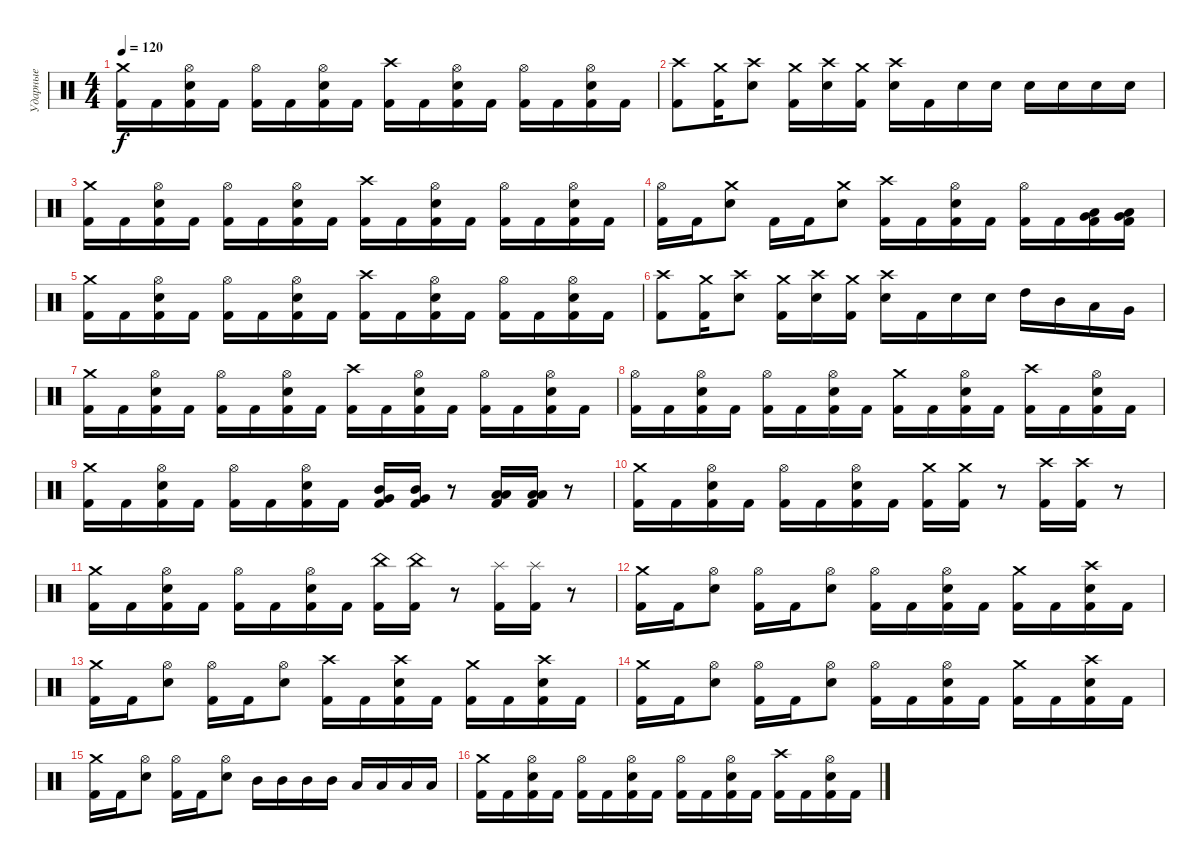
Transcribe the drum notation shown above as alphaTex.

\track ("Ударные" "Ударные") {instrument percussion}
\staff {score}
\articulation defaults
\ts (4 4)
\tempo 120
\clef neutral
\ks c
("Crash medium (hit)" "Kick (hit) 2").16{dy f} "Kick (hit) 2".16 ("Hi-Hat (open)" "Electric Snare (hit)" "Kick (hit) 2").16 "Kick (hit) 2".16 ("Hi-Hat (open)" "Kick (hit) 2").16 "Kick (hit) 2".16 ("Hi-Hat (open)" "Electric Snare (hit)" "Kick (hit) 2").16 "Kick (hit) 2".16 ("Crash high (hit)" "Kick (hit) 2").16 "Kick (hit) 2".16 ("Hi-Hat (open)" "Electric Snare (hit)" "Kick (hit) 2").16 "Kick (hit) 2".16 ("Hi-Hat (open)" "Kick (hit) 2").16 "Kick (hit) 2".16 ("Hi-Hat (open)" "Electric Snare (hit)" "Kick (hit) 2").16 "Kick (hit) 2".16 |
("Crash high (hit)" "Kick (hit) 2").8 ("Crash medium (hit)" "Kick (hit) 2").16 ("Crash high (hit)" "Electric Snare (hit)").8 ("Crash medium (hit)" "Kick (hit) 2").16 ("Crash high (hit)" "Electric Snare (hit)").16 ("Crash medium (hit)" "Kick (hit) 2").16 ("Crash high (hit)" "Electric Snare (hit)").16 "Kick (hit) 2".16 "Electric Snare (hit)".16 "Electric Snare (hit)".16 "Electric Snare (hit)".16 "Electric Snare (hit)".16 "Electric Snare (hit)".16 "Electric Snare (hit)".16 |
("Crash medium (hit)" "Kick (hit) 2").16 "Kick (hit) 2".16 ("Hi-Hat (open)" "Electric Snare (hit)" "Kick (hit) 2").16 "Kick (hit) 2".16 ("Hi-Hat (open)" "Kick (hit) 2").16 "Kick (hit) 2".16 ("Hi-Hat (open)" "Electric Snare (hit)" "Kick (hit) 2").16 "Kick (hit) 2".16 ("Crash high (hit)" "Kick (hit) 2").16 "Kick (hit) 2".16 ("Hi-Hat (open)" "Electric Snare (hit)" "Kick (hit) 2").16 "Kick (hit) 2".16 ("Hi-Hat (open)" "Kick (hit) 2").16 "Kick (hit) 2".16 ("Hi-Hat (open)" "Electric Snare (hit)" "Kick (hit) 2").16 "Kick (hit) 2".16 |
("Hi-Hat (open)" "Kick (hit) 2").16 "Kick (hit) 2".16 ("Crash medium (hit)" "Electric Snare (hit)").8 "Kick (hit) 2".16 "Kick (hit) 2".16 ("Crash medium (hit)" "Electric Snare (hit)").8 ("Crash high (hit)" "Kick (hit) 2").16 "Kick (hit) 2".16 ("Hi-Hat (open)" "Electric Snare (hit)" "Kick (hit) 2").16 "Kick (hit) 2".16 ("Hi-Hat (open)" "Kick (hit) 2").16 "Kick (hit) 2".16 ("Low Tom (hit)" "Very Low Tom (hit)" "Kick (hit) 2").16 ("Low Tom (hit)" "Very Low Tom (hit)" "Kick (hit) 2").16 |
("Crash medium (hit)" "Kick (hit) 2").16 "Kick (hit) 2".16 ("Hi-Hat (open)" "Electric Snare (hit)" "Kick (hit) 2").16 "Kick (hit) 2".16 ("Hi-Hat (open)" "Kick (hit) 2").16 "Kick (hit) 2".16 ("Hi-Hat (open)" "Electric Snare (hit)" "Kick (hit) 2").16 "Kick (hit) 2".16 ("Crash high (hit)" "Kick (hit) 2").16 "Kick (hit) 2".16 ("Hi-Hat (open)" "Electric Snare (hit)" "Kick (hit) 2").16 "Kick (hit) 2".16 ("Hi-Hat (open)" "Kick (hit) 2").16 "Kick (hit) 2".16 ("Hi-Hat (open)" "Electric Snare (hit)" "Kick (hit) 2").16 "Kick (hit) 2".16 |
("Crash high (hit)" "Kick (hit) 2").8 ("Crash medium (hit)" "Kick (hit) 2").16 ("Crash high (hit)" "Electric Snare (hit)").8 ("Crash medium (hit)" "Kick (hit) 2").16 ("Crash high (hit)" "Electric Snare (hit)").16 ("Crash medium (hit)" "Kick (hit) 2").16 ("Crash high (hit)" "Electric Snare (hit)").16 "Kick (hit) 2".16 "Electric Snare (hit)".16 "Electric Snare (hit)".16 "High Tom (hit)".16 "Mid Tom (hit)".16 "Low Tom (hit)".16 "Very Low Tom (hit)".16 |
("Crash medium (hit)" "Kick (hit) 2").16 "Kick (hit) 2".16 ("Hi-Hat (open)" "Electric Snare (hit)" "Kick (hit) 2").16 "Kick (hit) 2".16 ("Hi-Hat (open)" "Kick (hit) 2").16 "Kick (hit) 2".16 ("Hi-Hat (open)" "Electric Snare (hit)" "Kick (hit) 2").16 "Kick (hit) 2".16 ("Crash high (hit)" "Kick (hit) 2").16 "Kick (hit) 2".16 ("Hi-Hat (open)" "Electric Snare (hit)" "Kick (hit) 2").16 "Kick (hit) 2".16 ("Hi-Hat (open)" "Kick (hit) 2").16 "Kick (hit) 2".16 ("Hi-Hat (open)" "Electric Snare (hit)" "Kick (hit) 2").16 "Kick (hit) 2".16 |
("Hi-Hat (open)" "Kick (hit) 2").16 "Kick (hit) 2".16 ("Hi-Hat (open)" "Electric Snare (hit)" "Kick (hit) 2").16 "Kick (hit) 2".16 ("Hi-Hat (open)" "Kick (hit) 2").16 "Kick (hit) 2".16 ("Hi-Hat (open)" "Electric Snare (hit)" "Kick (hit) 2").16 "Kick (hit) 2".16 ("Crash medium (hit)" "Kick (hit) 2").16 "Kick (hit) 2".16 ("Hi-Hat (open)" "Electric Snare (hit)" "Kick (hit) 2").16 "Kick (hit) 2".16 ("Crash high (hit)" "Kick (hit) 2").16 "Kick (hit) 2".16 ("Hi-Hat (open)" "Electric Snare (hit)" "Kick (hit) 2").16 "Kick (hit) 2".16 |
("Crash medium (hit)" "Kick (hit) 2").16 "Kick (hit) 2".16 ("Hi-Hat (open)" "Electric Snare (hit)" "Kick (hit) 2").16 "Kick (hit) 2".16 ("Hi-Hat (open)" "Kick (hit) 2").16 "Kick (hit) 2".16 ("Hi-Hat (open)" "Electric Snare (hit)" "Kick (hit) 2").16 "Kick (hit) 2".16 ("Mid Tom (hit)" "Very Low Tom (hit)" "Kick (hit) 2").16 ("Mid Tom (hit)" "Very Low Tom (hit)" "Kick (hit) 2").16 r.8 ("Low Tom (hit)" "Low Floor Tom (hit)" "Kick (hit) 2").16 ("Low Tom (hit)" "Low Floor Tom (hit)" "Kick (hit) 2").16 r.8 |
("Crash medium (hit)" "Kick (hit) 2").16 "Kick (hit) 2".16 ("Hi-Hat (open)" "Electric Snare (hit)" "Kick (hit) 2").16 "Kick (hit) 2".16 ("Hi-Hat (open)" "Kick (hit) 2").16 "Kick (hit) 2".16 ("Hi-Hat (open)" "Electric Snare (hit)" "Kick (hit) 2").16 "Kick (hit) 2".16 ("Crash medium (hit)" "Kick (hit) 2").16 ("Crash medium (hit)" "Kick (hit) 2").16 r.8 ("Crash high (hit)" "Kick (hit) 2").16 ("Crash high (hit)" "Kick (hit) 2").16 r.8 |
("Crash medium (hit)" "Kick (hit) 2").16 "Kick (hit) 2".16 ("Hi-Hat (open)" "Electric Snare (hit)" "Kick (hit) 2").16 "Kick (hit) 2".16 ("Hi-Hat (open)" "Kick (hit) 2").16 "Kick (hit) 2".16 ("Hi-Hat (open)" "Electric Snare (hit)" "Kick (hit) 2").16 "Kick (hit) 2".16 ("China (hit)" "Kick (hit) 2").16 ("China (hit)" "Kick (hit) 2").16 r.8 ("Splash (hit)" "Kick (hit) 2").16 ("Splash (hit)" "Kick (hit) 2").16 r.8 |
("Crash medium (hit)" "Kick (hit) 2").16 "Kick (hit) 2".16 ("Hi-Hat (open)" "Electric Snare (hit)").8 ("Hi-Hat (open)" "Kick (hit) 2").16 "Kick (hit) 2".16 ("Hi-Hat (open)" "Electric Snare (hit)").8 ("Hi-Hat (open)" "Kick (hit) 2").16 "Kick (hit) 2".16 ("Hi-Hat (open)" "Electric Snare (hit)" "Kick (hit) 2").16 "Kick (hit) 2".16 ("Crash medium (hit)" "Kick (hit) 2").16 "Kick (hit) 2".16 ("Crash high (hit)" "Electric Snare (hit)" "Kick (hit) 2").16 "Kick (hit) 2".16 |
("Crash medium (hit)" "Kick (hit) 2").16 "Kick (hit) 2".16 ("Hi-Hat (open)" "Electric Snare (hit)").8 ("Hi-Hat (open)" "Kick (hit) 2").16 "Kick (hit) 2".16 ("Hi-Hat (open)" "Electric Snare (hit)").8 ("Crash high (hit)" "Kick (hit) 2").16 "Kick (hit) 2".16 ("Crash high (hit)" "Electric Snare (hit)" "Kick (hit) 2").16 "Kick (hit) 2".16 ("Crash medium (hit)" "Kick (hit) 2").16 "Kick (hit) 2".16 ("Crash high (hit)" "Electric Snare (hit)" "Kick (hit) 2").16 "Kick (hit) 2".16 |
("Crash medium (hit)" "Kick (hit) 2").16 "Kick (hit) 2".16 ("Hi-Hat (open)" "Electric Snare (hit)").8 ("Hi-Hat (open)" "Kick (hit) 2").16 "Kick (hit) 2".16 ("Hi-Hat (open)" "Electric Snare (hit)").8 ("Hi-Hat (open)" "Kick (hit) 2").16 "Kick (hit) 2".16 ("Hi-Hat (open)" "Electric Snare (hit)" "Kick (hit) 2").16 "Kick (hit) 2".16 ("Crash medium (hit)" "Kick (hit) 2").16 "Kick (hit) 2".16 ("Crash high (hit)" "Electric Snare (hit)" "Kick (hit) 2").16 "Kick (hit) 2".16 |
("Crash medium (hit)" "Kick (hit) 2").16 "Kick (hit) 2".16 ("Hi-Hat (open)" "Electric Snare (hit)").8 ("Hi-Hat (open)" "Kick (hit) 2").16 "Kick (hit) 2".16 ("Hi-Hat (open)" "Electric Snare (hit)").8 "Mid Tom (hit)".16 "Mid Tom (hit)".16 "Mid Tom (hit)".16 "Mid Tom (hit)".16 "Low Tom (hit)".16 "Low Tom (hit)".16 "Low Tom (hit)".16 "Low Tom (hit)".16 |
("Crash medium (hit)" "Kick (hit) 2").16 "Kick (hit) 2".16 ("Hi-Hat (open)" "Electric Snare (hit)" "Kick (hit) 2").16 "Kick (hit) 2".16 ("Hi-Hat (open)" "Kick (hit) 2").16 "Kick (hit) 2".16 ("Hi-Hat (open)" "Electric Snare (hit)" "Kick (hit) 2").16 "Kick (hit) 2".16 ("Hi-Hat (open)" "Kick (hit) 2").16 "Kick (hit) 2".16 ("Hi-Hat (open)" "Electric Snare (hit)" "Kick (hit) 2").16 "Kick (hit) 2".16 ("Crash high (hit)" "Kick (hit) 2").16 "Kick (hit) 2".16 ("Hi-Hat (open)" "Electric Snare (hit)" "Kick (hit) 2").16 "Kick (hit) 2".16
